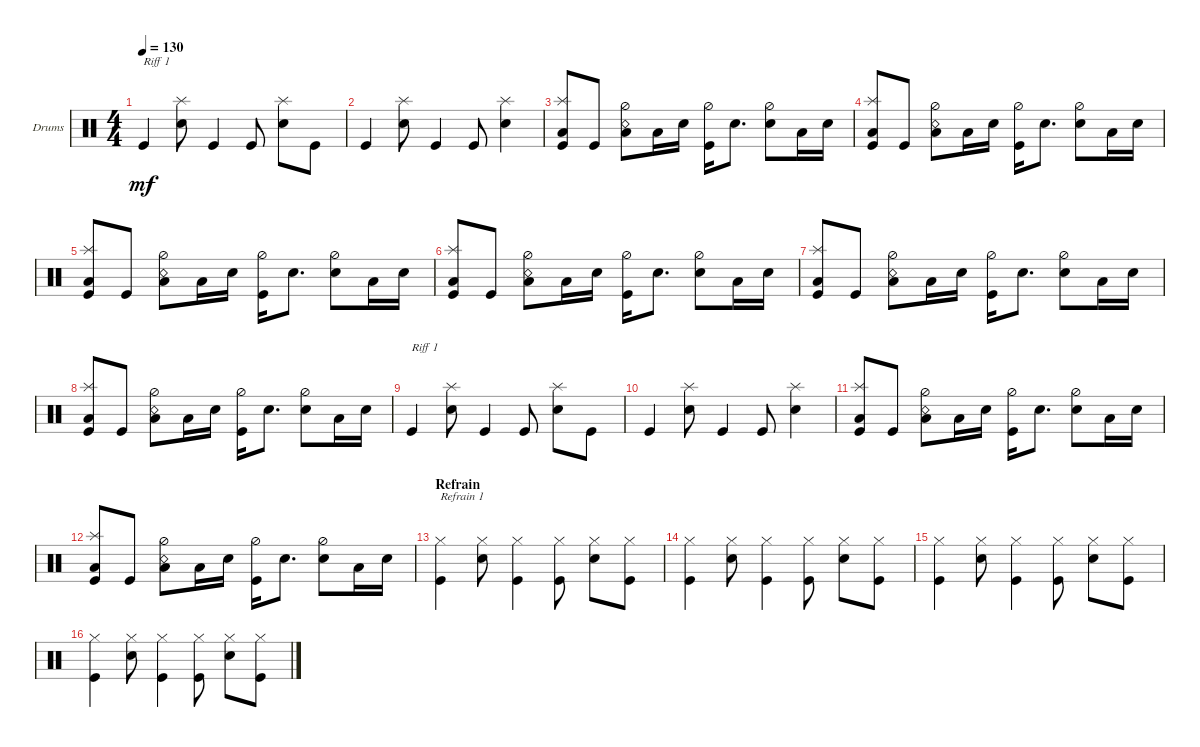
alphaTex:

\defaultSystemsLayout 4
\bracketExtendMode groupsimilarinstruments
\firstSystemTrackNameOrientation horizontal
\otherSystemsTrackNameOrientation horizontal
\track ("Drumkit" "Drums") {instrument percussion}
\staff {score}
\articulation defaults
\ts (4 4)
\tempo 130
\clef neutral
\ks c "Kick (hit)".4{txt "Riff 1" dy mf}
("Snare (hit) 2" "Splash (hit)").8 "Kick (hit)".4 "Kick (hit)".8 ("Snare (hit) 2" "Splash (hit)").8 "Kick (hit)".8 |
"Kick (hit)".4 ("Snare (hit) 2" "Splash (hit)").8 "Kick (hit)".4 "Kick (hit)".8 ("Snare (hit) 2" "Splash (hit)").4 |
("Low Tom (hit)" "Kick (hit)" "Splash (hit)").8 "Kick (hit)".8 ("Low Tom (hit)" "Snare (rim shot)" "Hi-Hat (half)").8 "Low Tom (hit)".16 "Snare (hit) 2".16 ("Kick (hit)" "Hi-Hat (half)").16 "Snare (hit) 2".8{d} ("Hi-Hat (half)" "Snare (hit) 2").8 "Low Tom (hit)".16 "Snare (hit) 2".16 |
("Low Tom (hit)" "Kick (hit)" "Splash (hit)").8 "Kick (hit)".8 ("Low Tom (hit)" "Snare (rim shot)" "Hi-Hat (half)").8 "Low Tom (hit)".16 "Snare (hit) 2".16 ("Kick (hit)" "Hi-Hat (half)").16 "Snare (hit) 2".8{d} ("Hi-Hat (half)" "Snare (hit) 2").8 "Low Tom (hit)".16 "Snare (hit) 2".16 |
("Low Tom (hit)" "Kick (hit)" "Splash (hit)").8 "Kick (hit)".8 ("Low Tom (hit)" "Snare (rim shot)" "Hi-Hat (half)").8 "Low Tom (hit)".16 "Snare (hit) 2".16 ("Kick (hit)" "Hi-Hat (half)").16 "Snare (hit) 2".8{d} ("Hi-Hat (half)" "Snare (hit) 2").8 "Low Tom (hit)".16 "Snare (hit) 2".16 |
("Low Tom (hit)" "Kick (hit)" "Splash (hit)").8 "Kick (hit)".8 ("Low Tom (hit)" "Snare (rim shot)" "Hi-Hat (half)").8 "Low Tom (hit)".16 "Snare (hit) 2".16 ("Kick (hit)" "Hi-Hat (half)").16 "Snare (hit) 2".8{d} ("Hi-Hat (half)" "Snare (hit) 2").8 "Low Tom (hit)".16 "Snare (hit) 2".16 |
("Low Tom (hit)" "Kick (hit)" "Splash (hit)").8 "Kick (hit)".8 ("Low Tom (hit)" "Snare (rim shot)" "Hi-Hat (half)").8 "Low Tom (hit)".16 "Snare (hit) 2".16 ("Kick (hit)" "Hi-Hat (half)").16 "Snare (hit) 2".8{d} ("Hi-Hat (half)" "Snare (hit) 2").8 "Low Tom (hit)".16 "Snare (hit) 2".16 |
("Low Tom (hit)" "Kick (hit)" "Splash (hit)").8 "Kick (hit)".8 ("Low Tom (hit)" "Snare (rim shot)" "Hi-Hat (half)").8 "Low Tom (hit)".16 "Snare (hit) 2".16 ("Kick (hit)" "Hi-Hat (half)").16 "Snare (hit) 2".8{d} ("Hi-Hat (half)" "Snare (hit) 2").8 "Low Tom (hit)".16 "Snare (hit) 2".16 |
"Kick (hit)".4{txt "Riff 1"} ("Snare (hit) 2" "Splash (hit)").8 "Kick (hit)".4 "Kick (hit)".8 ("Snare (hit) 2" "Splash (hit)").8 "Kick (hit)".8 |
"Kick (hit)".4 ("Snare (hit) 2" "Splash (hit)").8 "Kick (hit)".4 "Kick (hit)".8 ("Snare (hit) 2" "Splash (hit)").4 |
("Low Tom (hit)" "Kick (hit)" "Splash (hit)").8 "Kick (hit)".8 ("Low Tom (hit)" "Snare (rim shot)" "Hi-Hat (half)").8 "Low Tom (hit)".16 "Snare (hit) 2".16 ("Kick (hit)" "Hi-Hat (half)").16 "Snare (hit) 2".8{d} ("Hi-Hat (half)" "Snare (hit) 2").8 "Low Tom (hit)".16 "Snare (hit) 2".16 |
("Low Tom (hit)" "Kick (hit)" "Splash (hit)").8 "Kick (hit)".8 ("Low Tom (hit)" "Snare (rim shot)" "Hi-Hat (half)").8 "Low Tom (hit)".16 "Snare (hit) 2".16 ("Kick (hit)" "Hi-Hat (half)").16 "Snare (hit) 2".8{d} ("Hi-Hat (half)" "Snare (hit) 2").8 "Low Tom (hit)".16 "Snare (hit) 2".16 |
\section ("" "Refrain")
("Kick (hit)" "Hi-Hat (closed)").4{txt "Refrain 1"} ("Snare (hit) 2" "Hi-Hat (closed)").8 ("Kick (hit)" "Hi-Hat (closed)").4 ("Kick (hit)" "Hi-Hat (closed)").8 ("Snare (hit) 2" "Hi-Hat (closed)").8 ("Kick (hit)" "Hi-Hat (closed)").8 |
("Kick (hit)" "Hi-Hat (closed)").4 ("Snare (hit) 2" "Hi-Hat (closed)").8 ("Kick (hit)" "Hi-Hat (closed)").4 ("Kick (hit)" "Hi-Hat (closed)").8 ("Snare (hit) 2" "Hi-Hat (closed)").8 ("Kick (hit)" "Hi-Hat (closed)").8 |
("Kick (hit)" "Hi-Hat (closed)").4 ("Snare (hit) 2" "Hi-Hat (closed)").8 ("Kick (hit)" "Hi-Hat (closed)").4 ("Kick (hit)" "Hi-Hat (closed)").8 ("Snare (hit) 2" "Hi-Hat (closed)").8 ("Kick (hit)" "Hi-Hat (closed)").8 |
("Kick (hit)" "Hi-Hat (closed)").4 ("Snare (hit) 2" "Hi-Hat (closed)").8 ("Kick (hit)" "Hi-Hat (closed)").4 ("Kick (hit)" "Hi-Hat (closed)").8 ("Snare (hit) 2" "Hi-Hat (closed)").8 ("Kick (hit)" "Hi-Hat (closed)").8
